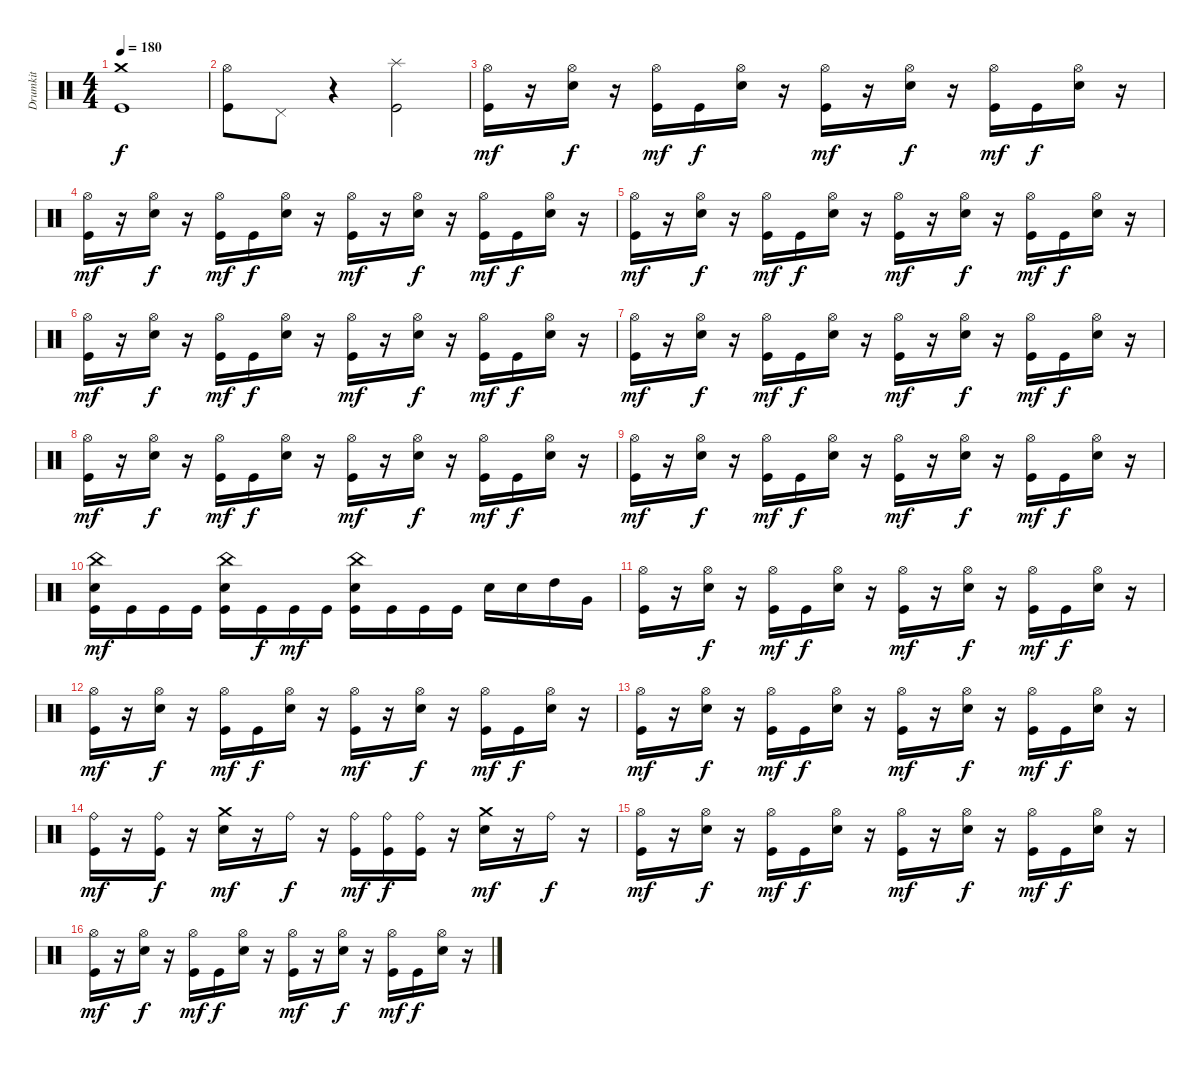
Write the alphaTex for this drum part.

\track ("Drumkit" "Drumkit") {instrument percussion}
\staff {score}
\articulation defaults
\ts (4 4)
\tempo 180
\clef neutral
\ks c
("Crash medium (hit)" "Kick (hit)").1{dy f} |
("Hi-Hat (open)" "Kick (hit)").8 "Pedal Hi-Hat (hit)".8 r.4 ("Splash (hit)" "Kick (hit)").2 |
("Hi-Hat (open)" "Kick (hit)").16{dy mf} r.16 ("Hi-Hat (open)" "Snare (hit) 2").16{dy f} r.16 ("Hi-Hat (open)" "Kick (hit)").16{dy mf} "Kick (hit)".16{dy f} ("Hi-Hat (open)" "Snare (hit) 2").16 r.16 ("Hi-Hat (open)" "Kick (hit)").16{dy mf} r.16 ("Hi-Hat (open)" "Snare (hit) 2").16{dy f} r.16 ("Hi-Hat (open)" "Kick (hit)").16{dy mf} "Kick (hit)".16{dy f} ("Hi-Hat (open)" "Snare (hit) 2").16 r.16 |
("Hi-Hat (open)" "Kick (hit)").16{dy mf} r.16 ("Hi-Hat (open)" "Snare (hit) 2").16{dy f} r.16 ("Hi-Hat (open)" "Kick (hit)").16{dy mf} "Kick (hit)".16{dy f} ("Hi-Hat (open)" "Snare (hit) 2").16 r.16 ("Hi-Hat (open)" "Kick (hit)").16{dy mf} r.16 ("Hi-Hat (open)" "Snare (hit) 2").16{dy f} r.16 ("Hi-Hat (open)" "Kick (hit)").16{dy mf} "Kick (hit)".16{dy f} ("Hi-Hat (open)" "Snare (hit) 2").16 r.16 |
("Hi-Hat (open)" "Kick (hit)").16{dy mf} r.16 ("Hi-Hat (open)" "Snare (hit) 2").16{dy f} r.16 ("Hi-Hat (open)" "Kick (hit)").16{dy mf} "Kick (hit)".16{dy f} ("Hi-Hat (open)" "Snare (hit) 2").16 r.16 ("Hi-Hat (open)" "Kick (hit)").16{dy mf} r.16 ("Hi-Hat (open)" "Snare (hit) 2").16{dy f} r.16 ("Hi-Hat (open)" "Kick (hit)").16{dy mf} "Kick (hit)".16{dy f} ("Hi-Hat (open)" "Snare (hit) 2").16 r.16 |
("Hi-Hat (open)" "Kick (hit)").16{dy mf} r.16 ("Hi-Hat (open)" "Snare (hit) 2").16{dy f} r.16 ("Hi-Hat (open)" "Kick (hit)").16{dy mf} "Kick (hit)".16{dy f} ("Hi-Hat (open)" "Snare (hit) 2").16 r.16 ("Hi-Hat (open)" "Kick (hit)").16{dy mf} r.16 ("Hi-Hat (open)" "Snare (hit) 2").16{dy f} r.16 ("Hi-Hat (open)" "Kick (hit)").16{dy mf} "Kick (hit)".16{dy f} ("Hi-Hat (open)" "Snare (hit) 2").16 r.16 |
("Hi-Hat (open)" "Kick (hit)").16{dy mf} r.16 ("Hi-Hat (open)" "Snare (hit) 2").16{dy f} r.16 ("Hi-Hat (open)" "Kick (hit)").16{dy mf} "Kick (hit)".16{dy f} ("Hi-Hat (open)" "Snare (hit) 2").16 r.16 ("Hi-Hat (open)" "Kick (hit)").16{dy mf} r.16 ("Hi-Hat (open)" "Snare (hit) 2").16{dy f} r.16 ("Hi-Hat (open)" "Kick (hit)").16{dy mf} "Kick (hit)".16{dy f} ("Hi-Hat (open)" "Snare (hit) 2").16 r.16 |
("Hi-Hat (open)" "Kick (hit)").16{dy mf} r.16 ("Hi-Hat (open)" "Snare (hit) 2").16{dy f} r.16 ("Hi-Hat (open)" "Kick (hit)").16{dy mf} "Kick (hit)".16{dy f} ("Hi-Hat (open)" "Snare (hit) 2").16 r.16 ("Hi-Hat (open)" "Kick (hit)").16{dy mf} r.16 ("Hi-Hat (open)" "Snare (hit) 2").16{dy f} r.16 ("Hi-Hat (open)" "Kick (hit)").16{dy mf} "Kick (hit)".16{dy f} ("Hi-Hat (open)" "Snare (hit) 2").16 r.16 |
("Hi-Hat (open)" "Kick (hit)").16{dy mf} r.16 ("Hi-Hat (open)" "Snare (hit) 2").16{dy f} r.16 ("Hi-Hat (open)" "Kick (hit)").16{dy mf} "Kick (hit)".16{dy f} ("Hi-Hat (open)" "Snare (hit) 2").16 r.16 ("Hi-Hat (open)" "Kick (hit)").16{dy mf} r.16 ("Hi-Hat (open)" "Snare (hit) 2").16{dy f} r.16 ("Hi-Hat (open)" "Kick (hit)").16{dy mf} "Kick (hit)".16{dy f} ("Hi-Hat (open)" "Snare (hit) 2").16 r.16 |
("China (hit)" "Snare (hit) 2" "Kick (hit)").16{dy mf} "Kick (hit)".16 "Kick (hit)".16 "Kick (hit)".16 ("China (hit)" "Snare (hit) 2" "Kick (hit)").16 "Kick (hit)".16{dy f} "Kick (hit)".16{dy mf} "Kick (hit)".16 ("China (hit)" "Snare (hit) 2" "Kick (hit)").16 "Kick (hit)".16 "Kick (hit)".16 "Kick (hit)".16 "Snare (hit) 2".16 "Snare (hit) 2".16 "High Tom (hit)".16 "Very Low Tom (hit)".16 |
("Hi-Hat (open)" "Kick (hit)").16 r.16 ("Hi-Hat (open)" "Snare (hit) 2").16{dy f} r.16 ("Hi-Hat (open)" "Kick (hit)").16{dy mf} "Kick (hit)".16{dy f} ("Hi-Hat (open)" "Snare (hit) 2").16 r.16 ("Hi-Hat (open)" "Kick (hit)").16{dy mf} r.16 ("Hi-Hat (open)" "Snare (hit) 2").16{dy f} r.16 ("Hi-Hat (open)" "Kick (hit)").16{dy mf} "Kick (hit)".16{dy f} ("Hi-Hat (open)" "Snare (hit) 2").16 r.16 |
("Hi-Hat (open)" "Kick (hit)").16{dy mf} r.16 ("Hi-Hat (open)" "Snare (hit) 2").16{dy f} r.16 ("Hi-Hat (open)" "Kick (hit)").16{dy mf} "Kick (hit)".16{dy f} ("Hi-Hat (open)" "Snare (hit) 2").16 r.16 ("Hi-Hat (open)" "Kick (hit)").16{dy mf} r.16 ("Hi-Hat (open)" "Snare (hit) 2").16{dy f} r.16 ("Hi-Hat (open)" "Kick (hit)").16{dy mf} "Kick (hit)".16{dy f} ("Hi-Hat (open)" "Snare (hit) 2").16 r.16 |
("Hi-Hat (open)" "Kick (hit)").16{dy mf} r.16 ("Hi-Hat (open)" "Snare (hit) 2").16{dy f} r.16 ("Hi-Hat (open)" "Kick (hit)").16{dy mf} "Kick (hit)".16{dy f} ("Hi-Hat (open)" "Snare (hit) 2").16 r.16 ("Hi-Hat (open)" "Kick (hit)").16{dy mf} r.16 ("Hi-Hat (open)" "Snare (hit) 2").16{dy f} r.16 ("Hi-Hat (open)" "Kick (hit)").16{dy mf} "Kick (hit)".16{dy f} ("Hi-Hat (open)" "Snare (hit) 2").16 r.16 |
("Ride (bell)" "Kick (hit)").16{dy mf} r.16 ("Ride (bell)" "Kick (hit)").16{dy f} r.16 ("Crash medium (hit)" "Snare (hit) 2").16{dy mf} r.16 "Ride (bell)".16{dy f} r.16 ("Ride (bell)" "Kick (hit)").16{dy mf} ("Ride (bell)" "Kick (hit)").16{dy f} ("Ride (bell)" "Kick (hit)").16 r.16 ("Crash medium (hit)" "Snare (hit) 2").16{dy mf} r.16 "Ride (bell)".16{dy f} r.16 |
("Hi-Hat (open)" "Kick (hit)").16{dy mf} r.16 ("Hi-Hat (open)" "Snare (hit) 2").16{dy f} r.16 ("Hi-Hat (open)" "Kick (hit)").16{dy mf} "Kick (hit)".16{dy f} ("Hi-Hat (open)" "Snare (hit) 2").16 r.16 ("Hi-Hat (open)" "Kick (hit)").16{dy mf} r.16 ("Hi-Hat (open)" "Snare (hit) 2").16{dy f} r.16 ("Hi-Hat (open)" "Kick (hit)").16{dy mf} "Kick (hit)".16{dy f} ("Hi-Hat (open)" "Snare (hit) 2").16 r.16 |
("Hi-Hat (open)" "Kick (hit)").16{dy mf} r.16 ("Hi-Hat (open)" "Snare (hit) 2").16{dy f} r.16 ("Hi-Hat (open)" "Kick (hit)").16{dy mf} "Kick (hit)".16{dy f} ("Hi-Hat (open)" "Snare (hit) 2").16 r.16 ("Hi-Hat (open)" "Kick (hit)").16{dy mf} r.16 ("Hi-Hat (open)" "Snare (hit) 2").16{dy f} r.16 ("Hi-Hat (open)" "Kick (hit)").16{dy mf} "Kick (hit)".16{dy f} ("Hi-Hat (open)" "Snare (hit) 2").16 r.16
